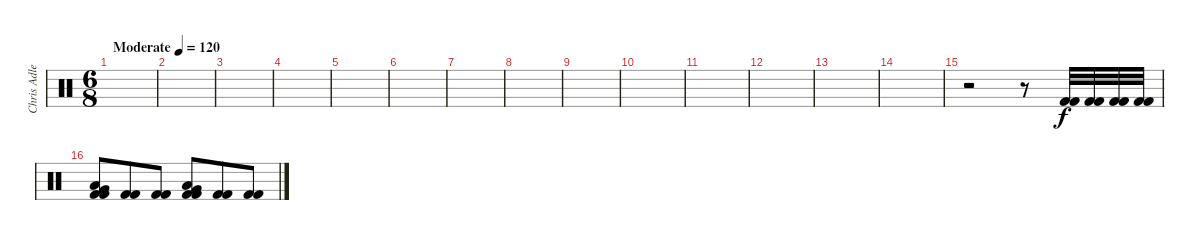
\track ("Chris Adler" "Chris Adle") {instrument percussion}
\staff {score}
\articulation defaults
\ts (6 8)
\tempo (120 "Moderate")
\clef neutral
\ks c
|
|
|
|
|
|
|
|
|
|
|
|
|
|
r.2 r.8 ("Kick (hit) 2" "Kick (hit) 2").32 ("Kick (hit) 2" "Kick (hit) 2").32 ("Kick (hit) 2" "Kick (hit) 2").32 ("Kick (hit) 2" "Kick (hit) 2").32 |
("Low Tom (hit)" "Very Low Tom (hit)" "Kick (hit) 2" "Kick (hit) 2").8 ("Kick (hit) 2" "Kick (hit) 2").8 ("Kick (hit) 2" "Kick (hit) 2").8 ("Very Low Tom (hit)" "Low Floor Tom (hit)" "Kick (hit) 2" "Kick (hit) 2").8 ("Kick (hit) 2" "Kick (hit) 2").8 ("Kick (hit) 2" "Kick (hit) 2").8
